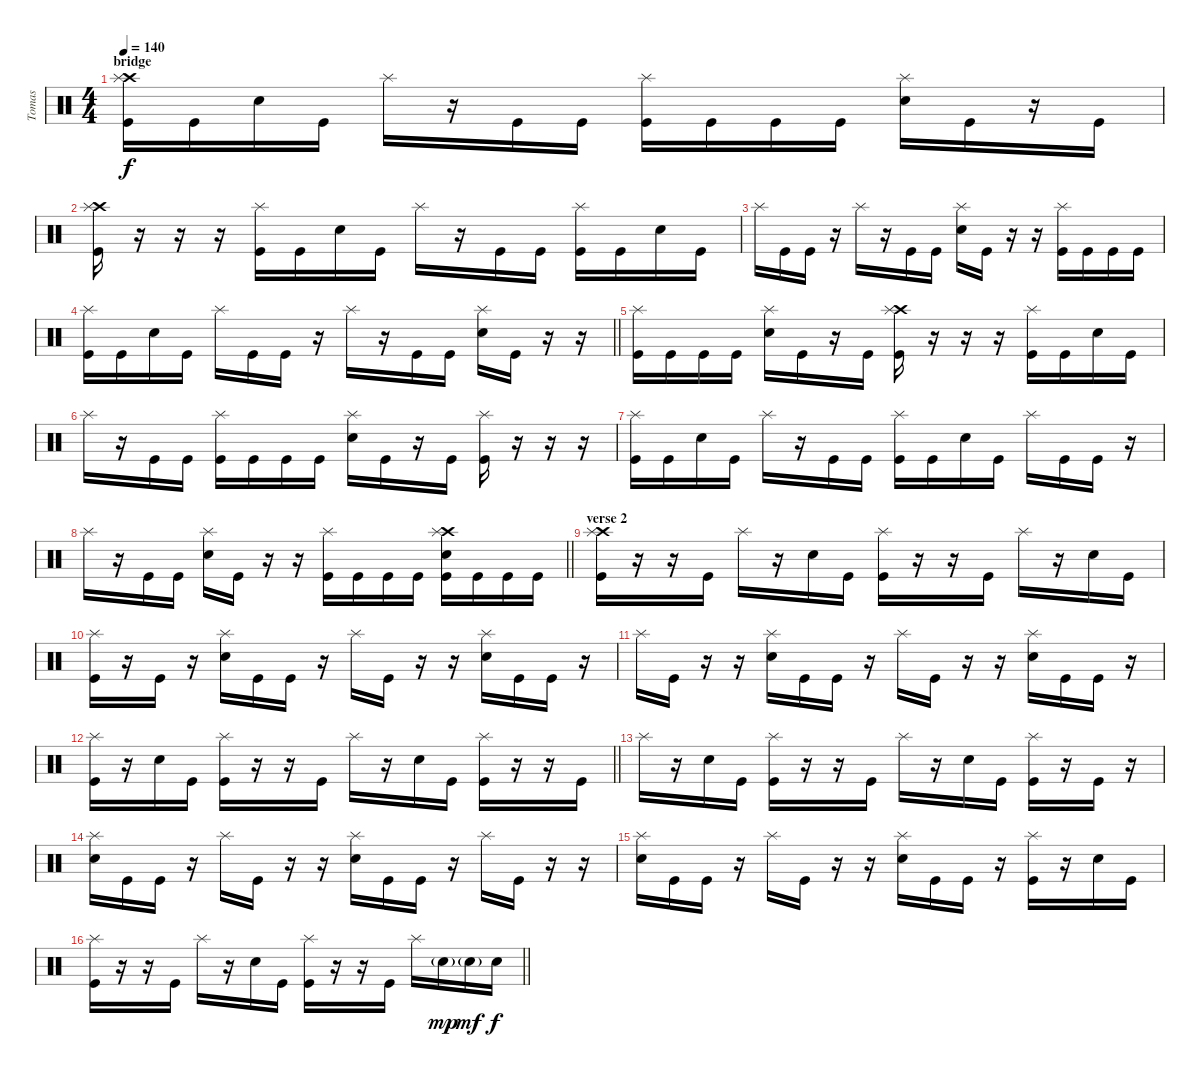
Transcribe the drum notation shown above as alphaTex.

\track ("Tomas" "Tomas") {instrument percussion}
\staff {score}
\articulation defaults
\ts (4 4)
\section ("" "bridge")
\tempo 140
\clef neutral
\ks c
("Crash high (hit)" "Splash (hit)" "Kick (hit)").16{dy f} "Kick (hit)".16 "Electric Snare (hit)".16 "Kick (hit)".16 "Splash (hit)".16 r.16 "Kick (hit)".16 "Kick (hit)".16 ("Splash (hit)" "Kick (hit)").16 "Kick (hit)".16 "Kick (hit)".16 "Kick (hit)".16 ("Splash (hit)" "Electric Snare (hit)").16 "Kick (hit)".16 r.16 "Kick (hit)".16 |
("Crash high (hit)" "Splash (hit)" "Kick (hit)").16 r.16 r.16 r.16 ("Splash (hit)" "Kick (hit)").16 "Kick (hit)".16 "Electric Snare (hit)".16 "Kick (hit)".16 "Splash (hit)".16 r.16 "Kick (hit)".16 "Kick (hit)".16 ("Splash (hit)" "Kick (hit)").16 "Kick (hit)".16 "Electric Snare (hit)".16 "Kick (hit)".16 |
"Splash (hit)".16 "Kick (hit)".16 "Kick (hit)".16 r.16 "Splash (hit)".16 r.16 "Kick (hit)".16 "Kick (hit)".16 ("Splash (hit)" "Electric Snare (hit)").16 "Kick (hit)".16 r.16 r.16 ("Splash (hit)" "Kick (hit)").16 "Kick (hit)".16 "Kick (hit)".16 "Kick (hit)".16 |
\barLineRight lightlight
("Splash (hit)" "Kick (hit)").16 "Kick (hit)".16 "Electric Snare (hit)".16 "Kick (hit)".16 "Splash (hit)".16 "Kick (hit)".16 "Kick (hit)".16 r.16 "Splash (hit)".16 r.16 "Kick (hit)".16 "Kick (hit)".16 ("Splash (hit)" "Electric Snare (hit)").16 "Kick (hit)".16 r.16 r.16 |
("Splash (hit)" "Kick (hit)").16 "Kick (hit)".16 "Kick (hit)".16 "Kick (hit)".16 ("Splash (hit)" "Electric Snare (hit)").16 "Kick (hit)".16 r.16 "Kick (hit)".16 ("Crash high (hit)" "Splash (hit)" "Kick (hit)").16 r.16 r.16 r.16 ("Splash (hit)" "Kick (hit)").16 "Kick (hit)".16 "Electric Snare (hit)".16 "Kick (hit)".16 |
"Splash (hit)".16 r.16 "Kick (hit)".16 "Kick (hit)".16 ("Splash (hit)" "Kick (hit)").16 "Kick (hit)".16 "Kick (hit)".16 "Kick (hit)".16 ("Splash (hit)" "Electric Snare (hit)").16 "Kick (hit)".16 r.16 "Kick (hit)".16 ("Splash (hit)" "Kick (hit)").16 r.16 r.16 r.16 |
("Splash (hit)" "Kick (hit)").16 "Kick (hit)".16 "Electric Snare (hit)".16 "Kick (hit)".16 "Splash (hit)".16 r.16 "Kick (hit)".16 "Kick (hit)".16 ("Splash (hit)" "Kick (hit)").16 "Kick (hit)".16 "Electric Snare (hit)".16 "Kick (hit)".16 "Splash (hit)".16 "Kick (hit)".16 "Kick (hit)".16 r.16 |
\barLineRight lightlight "Splash (hit)".16
r.16 "Kick (hit)".16 "Kick (hit)".16 ("Splash (hit)" "Electric Snare (hit)").16 "Kick (hit)".16 r.16 r.16 ("Splash (hit)" "Kick (hit)").16 "Kick (hit)".16 "Kick (hit)".16 "Kick (hit)".16 ("Crash high (hit)" "Splash (hit)" "Electric Snare (hit)" "Kick (hit)").16 "Kick (hit)".16 "Kick (hit)".16 "Kick (hit)".16 |
\section ("" "verse 2")
("Crash high (hit)" "Splash (hit)" "Kick (hit)").16 r.16 r.16 "Kick (hit)".16 "Splash (hit)".16 r.16 "Electric Snare (hit)".16 "Kick (hit)".16 ("Splash (hit)" "Kick (hit)").16 r.16 r.16 "Kick (hit)".16 "Splash (hit)".16 r.16 "Electric Snare (hit)".16 "Kick (hit)".16 |
("Splash (hit)" "Kick (hit)").16 r.16 "Kick (hit)".16 r.16 ("Splash (hit)" "Electric Snare (hit)").16 "Kick (hit)".16 "Kick (hit)".16 r.16 "Splash (hit)".16 "Kick (hit)".16 r.16 r.16 ("Splash (hit)" "Electric Snare (hit)").16 "Kick (hit)".16 "Kick (hit)".16 r.16 |
"Splash (hit)".16 "Kick (hit)".16 r.16 r.16 ("Splash (hit)" "Electric Snare (hit)").16 "Kick (hit)".16 "Kick (hit)".16 r.16 "Splash (hit)".16 "Kick (hit)".16 r.16 r.16 ("Splash (hit)" "Electric Snare (hit)").16 "Kick (hit)".16 "Kick (hit)".16 r.16 |
\barLineRight lightlight
("Splash (hit)" "Kick (hit)").16 r.16 "Electric Snare (hit)".16 "Kick (hit)".16 ("Splash (hit)" "Kick (hit)").16 r.16 r.16 "Kick (hit)".16 "Splash (hit)".16 r.16 "Electric Snare (hit)".16 "Kick (hit)".16 ("Splash (hit)" "Kick (hit)").16 r.16 r.16 "Kick (hit)".16 |
"Splash (hit)".16 r.16 "Electric Snare (hit)".16 "Kick (hit)".16 ("Splash (hit)" "Kick (hit)").16 r.16 r.16 "Kick (hit)".16 "Splash (hit)".16 r.16 "Electric Snare (hit)".16 "Kick (hit)".16 ("Splash (hit)" "Kick (hit)").16 r.16 "Kick (hit)".16 r.16 |
("Splash (hit)" "Electric Snare (hit)").16 "Kick (hit)".16 "Kick (hit)".16 r.16 "Splash (hit)".16 "Kick (hit)".16 r.16 r.16 ("Splash (hit)" "Electric Snare (hit)").16 "Kick (hit)".16 "Kick (hit)".16 r.16 "Splash (hit)".16 "Kick (hit)".16 r.16 r.16 |
("Splash (hit)" "Electric Snare (hit)").16 "Kick (hit)".16 "Kick (hit)".16 r.16 "Splash (hit)".16 "Kick (hit)".16 r.16 r.16 ("Splash (hit)" "Electric Snare (hit)").16 "Kick (hit)".16 "Kick (hit)".16 r.16 ("Splash (hit)" "Kick (hit)").16 r.16 "Electric Snare (hit)".16 "Kick (hit)".16 |
\barLineRight lightlight
("Splash (hit)" "Kick (hit)").16 r.16 r.16 "Kick (hit)".16 "Splash (hit)".16 r.16 "Electric Snare (hit)".16 "Kick (hit)".16 ("Splash (hit)" "Kick (hit)").16 r.16 r.16 "Kick (hit)".16 "Splash (hit)".16 "Electric Snare (hit)"{g}.16{dy mp} "Electric Snare (hit)"{g}.16{dy mf} "Electric Snare (hit)".16{dy f}
